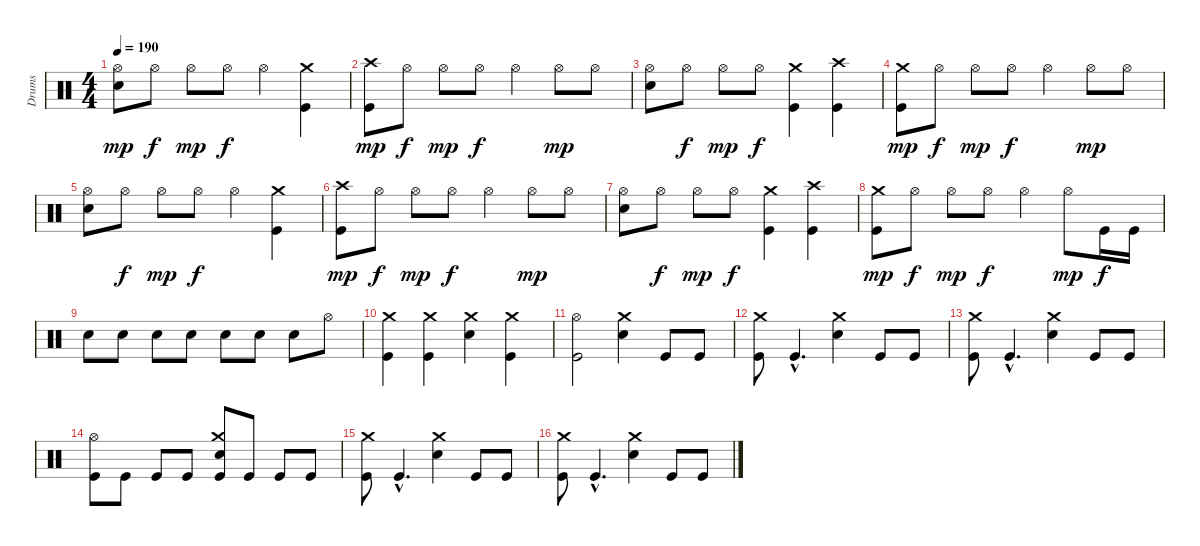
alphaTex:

\track ("Drums" "Drums") {instrument percussion}
\staff {score}
\articulation defaults
\ts (4 4)
\tempo 190
\clef neutral
\ks c
("Hi-Hat (open)" "Electric Snare (hit)").8{dy mp} "Hi-Hat (open)".8{dy f} "Hi-Hat (open)".8{dy mp} "Hi-Hat (open)".8{dy f} "Hi-Hat (open)".4 ("Crash medium (hit)" "Kick (hit)").4 |
("Crash high (hit)" "Kick (hit)").8{dy mp} "Hi-Hat (open)".8{dy f} "Hi-Hat (open)".8{dy mp} "Hi-Hat (open)".8{dy f} "Hi-Hat (open)".4 "Hi-Hat (open)".8{dy mp} "Hi-Hat (open)".8 |
("Hi-Hat (open)" "Electric Snare (hit)").8 "Hi-Hat (open)".8{dy f} "Hi-Hat (open)".8{dy mp} "Hi-Hat (open)".8{dy f} ("Crash medium (hit)" "Kick (hit)").4 ("Crash high (hit)" "Kick (hit)").4 |
("Crash medium (hit)" "Kick (hit)").8{dy mp} "Hi-Hat (open)".8{dy f} "Hi-Hat (open)".8{dy mp} "Hi-Hat (open)".8{dy f} "Hi-Hat (open)".4 "Hi-Hat (open)".8{dy mp} "Hi-Hat (open)".8 |
("Hi-Hat (open)" "Electric Snare (hit)").8 "Hi-Hat (open)".8{dy f} "Hi-Hat (open)".8{dy mp} "Hi-Hat (open)".8{dy f} "Hi-Hat (open)".4 ("Crash medium (hit)" "Kick (hit)").4 |
("Crash high (hit)" "Kick (hit)").8{dy mp} "Hi-Hat (open)".8{dy f} "Hi-Hat (open)".8{dy mp} "Hi-Hat (open)".8{dy f} "Hi-Hat (open)".4 "Hi-Hat (open)".8{dy mp} "Hi-Hat (open)".8 |
("Hi-Hat (open)" "Electric Snare (hit)").8 "Hi-Hat (open)".8{dy f} "Hi-Hat (open)".8{dy mp} "Hi-Hat (open)".8{dy f} ("Crash medium (hit)" "Kick (hit)").4 ("Crash high (hit)" "Kick (hit)").4 |
("Crash medium (hit)" "Kick (hit)").8{dy mp} "Hi-Hat (open)".8{dy f} "Hi-Hat (open)".8{dy mp} "Hi-Hat (open)".8{dy f} "Hi-Hat (open)".4 "Hi-Hat (open)".8{dy mp} "Kick (hit)".16{dy f} "Kick (hit)".16 |
"Electric Snare (hit)".8 "Electric Snare (hit)".8 "Electric Snare (hit)".8 "Electric Snare (hit)".8 "Electric Snare (hit)".8 "Electric Snare (hit)".8 "Electric Snare (hit)".8 "Hi-Hat (open)".8 |
("Crash medium (hit)" "Kick (hit)").4 ("Crash medium (hit)" "Kick (hit)").4 ("Crash medium (hit)" "Electric Snare (hit)").4 ("Crash medium (hit)" "Kick (hit)").4 |
("Hi-Hat (open)" "Kick (hit)").2 ("Crash medium (hit)" "Electric Snare (hit)").4 "Kick (hit)".8 "Kick (hit)".8 |
("Crash medium (hit)" "Kick (hit)").8 "Kick (hit)"{hac}.4{d} ("Crash medium (hit)" "Electric Snare (hit)").4 "Kick (hit)".8 "Kick (hit)".8 |
("Crash medium (hit)" "Kick (hit)").8 "Kick (hit)"{hac}.4{d} ("Crash medium (hit)" "Electric Snare (hit)").4 "Kick (hit)".8 "Kick (hit)".8 |
("Hi-Hat (open)" "Kick (hit)").8 "Kick (hit)".8 "Kick (hit)".8 "Kick (hit)".8 ("Crash medium (hit)" "Electric Snare (hit)" "Kick (hit)").8 "Kick (hit)".8 "Kick (hit)".8 "Kick (hit)".8 |
("Crash medium (hit)" "Kick (hit)").8 "Kick (hit)"{hac}.4{d} ("Crash medium (hit)" "Electric Snare (hit)").4 "Kick (hit)".8 "Kick (hit)".8 |
("Crash medium (hit)" "Kick (hit)").8 "Kick (hit)"{hac}.4{d} ("Crash medium (hit)" "Electric Snare (hit)").4 "Kick (hit)".8 "Kick (hit)".8
